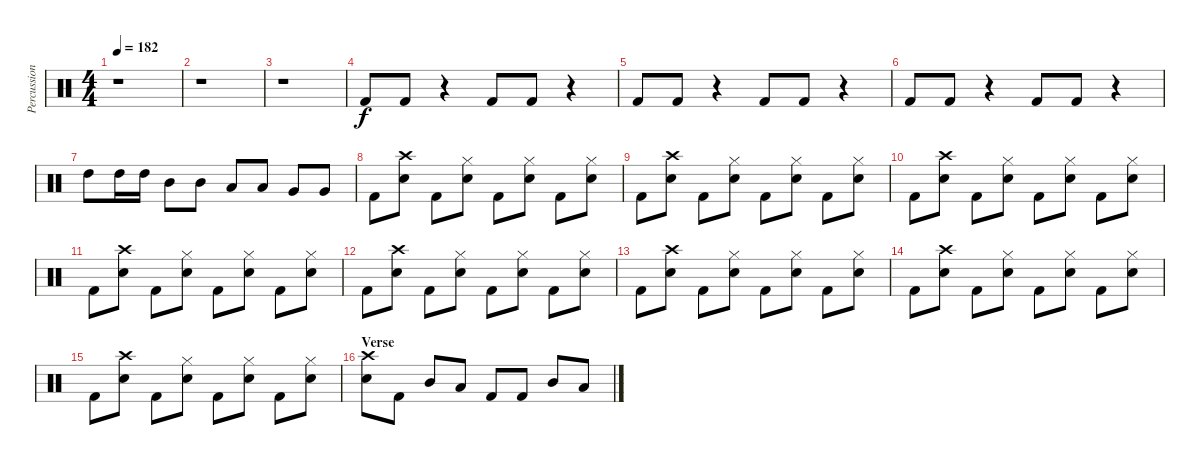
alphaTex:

\track ("Percussion" "Percussion") {instrument percussion}
\staff {score}
\articulation defaults
\ts (4 4)
\tempo 182
\clef neutral
\ks c
r.1{dy f} |
r.1 |
r.1 |
"Kick (hit) 2".8 "Kick (hit) 2".8 r.4 "Kick (hit) 2".8 "Kick (hit) 2".8 r.4 |
"Kick (hit) 2".8 "Kick (hit) 2".8 r.4 "Kick (hit) 2".8 "Kick (hit) 2".8 r.4 |
"Kick (hit) 2".8 "Kick (hit) 2".8 r.4 "Kick (hit) 2".8 "Kick (hit) 2".8 r.4 |
"High Tom (hit)".8 "High Tom (hit)".16 "High Tom (hit)".16 "Mid Tom (hit)".8 "Mid Tom (hit)".8 "Low Tom (hit)".8 "Low Tom (hit)".8 "Very Low Tom (hit)".8 "Very Low Tom (hit)".8 |
"Kick (hit) 2".8 ("Crash high (hit)" "Snare (hit) 2").8 "Kick (hit) 2".8 ("Hi-Hat (closed)" "Snare (hit) 2").8 "Kick (hit) 2".8 ("Hi-Hat (closed)" "Snare (hit) 2").8 "Kick (hit) 2".8 ("Hi-Hat (closed)" "Snare (hit) 2").8 |
"Kick (hit) 2".8 ("Crash high (hit)" "Snare (hit) 2").8 "Kick (hit) 2".8 ("Hi-Hat (closed)" "Snare (hit) 2").8 "Kick (hit) 2".8 ("Hi-Hat (closed)" "Snare (hit) 2").8 "Kick (hit) 2".8 ("Hi-Hat (closed)" "Snare (hit) 2").8 |
"Kick (hit) 2".8 ("Crash high (hit)" "Snare (hit) 2").8 "Kick (hit) 2".8 ("Hi-Hat (closed)" "Snare (hit) 2").8 "Kick (hit) 2".8 ("Hi-Hat (closed)" "Snare (hit) 2").8 "Kick (hit) 2".8 ("Hi-Hat (closed)" "Snare (hit) 2").8 |
"Kick (hit) 2".8 ("Crash high (hit)" "Snare (hit) 2").8 "Kick (hit) 2".8 ("Hi-Hat (closed)" "Snare (hit) 2").8 "Kick (hit) 2".8 ("Hi-Hat (closed)" "Snare (hit) 2").8 "Kick (hit) 2".8 ("Hi-Hat (closed)" "Snare (hit) 2").8 |
"Kick (hit) 2".8 ("Crash high (hit)" "Snare (hit) 2").8 "Kick (hit) 2".8 ("Hi-Hat (closed)" "Snare (hit) 2").8 "Kick (hit) 2".8 ("Hi-Hat (closed)" "Snare (hit) 2").8 "Kick (hit) 2".8 ("Hi-Hat (closed)" "Snare (hit) 2").8 |
"Kick (hit) 2".8 ("Crash high (hit)" "Snare (hit) 2").8 "Kick (hit) 2".8 ("Hi-Hat (closed)" "Snare (hit) 2").8 "Kick (hit) 2".8 ("Hi-Hat (closed)" "Snare (hit) 2").8 "Kick (hit) 2".8 ("Hi-Hat (closed)" "Snare (hit) 2").8 |
"Kick (hit) 2".8 ("Crash high (hit)" "Snare (hit) 2").8 "Kick (hit) 2".8 ("Hi-Hat (closed)" "Snare (hit) 2").8 "Kick (hit) 2".8 ("Hi-Hat (closed)" "Snare (hit) 2").8 "Kick (hit) 2".8 ("Hi-Hat (closed)" "Snare (hit) 2").8 |
"Kick (hit) 2".8 ("Crash high (hit)" "Snare (hit) 2").8 "Kick (hit) 2".8 ("Hi-Hat (closed)" "Snare (hit) 2").8 "Kick (hit) 2".8 ("Hi-Hat (closed)" "Snare (hit) 2").8 "Kick (hit) 2".8 ("Hi-Hat (closed)" "Snare (hit) 2").8 |
\section ("" "Verse")
("Crash high (hit)" "Snare (hit) 2").8 "Kick (hit) 2".8 "Mid Tom (hit)".8 "Low Tom (hit)".8 "Kick (hit) 2".8 "Kick (hit) 2".8 "Mid Tom (hit)".8 "Low Tom (hit)".8
